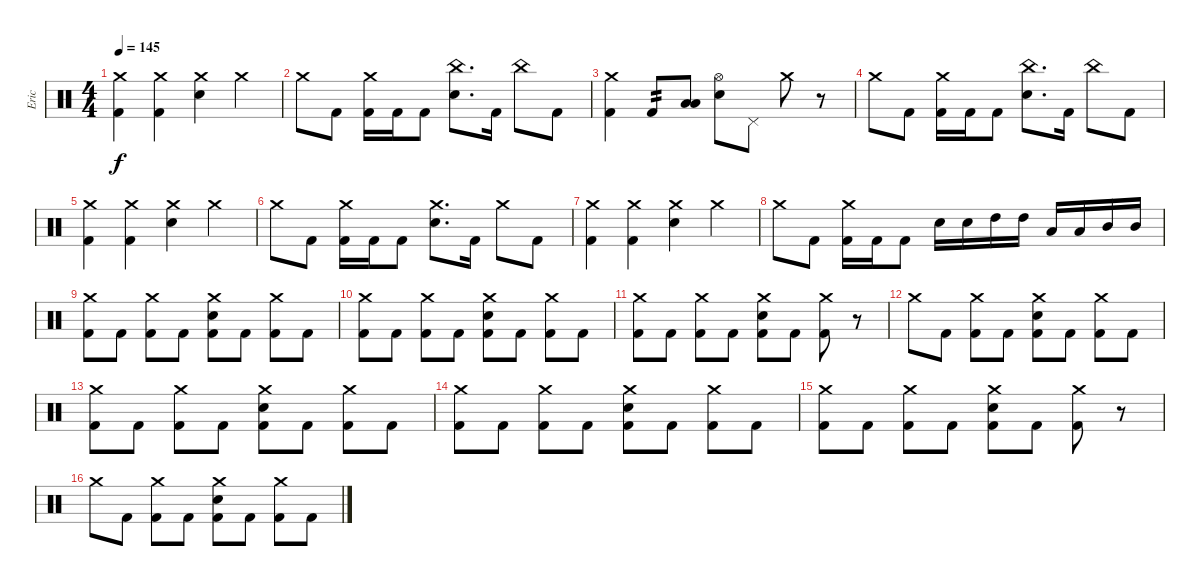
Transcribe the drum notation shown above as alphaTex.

\track ("Eric" "Eric") {instrument percussion}
\staff {score}
\articulation defaults
\ts (4 4)
\tempo 145
\clef neutral
\ks c
("Crash medium (hit)" "Kick (hit) 2").4{dy f} ("Crash medium (hit)" "Kick (hit) 2").4 ("Crash medium (hit)" "Electric Snare (hit)").4 "Crash medium (hit)".4 |
"Crash medium (hit)".8 "Kick (hit) 2".8 ("Crash medium (hit)" "Kick (hit) 2").16 "Kick (hit) 2".16 "Kick (hit) 2".8 ("China (hit)" "Electric Snare (hit)").8{d} "Kick (hit) 2".16 "China (hit)".8 "Kick (hit) 2".8 |
("Crash medium (hit)" "Kick (hit) 2").4 "Kick (hit) 2".8{tp 2} ("Low Floor Tom (hit)" "Low Tom (hit)").8 ("Hi-Hat (open)" "Electric Snare (hit)").8 "Pedal Hi-Hat (hit)".8 "Crash medium (hit)".8 r.8 |
"Crash medium (hit)".8 "Kick (hit) 2".8 ("Crash medium (hit)" "Kick (hit) 2").16 "Kick (hit) 2".16 "Kick (hit) 2".8 ("China (hit)" "Electric Snare (hit)").8{d} "Kick (hit) 2".16 "China (hit)".8 "Kick (hit) 2".8 |
("Crash medium (hit)" "Kick (hit) 2").4 ("Crash medium (hit)" "Kick (hit) 2").4 ("Crash medium (hit)" "Electric Snare (hit)").4 "Crash medium (hit)".4 |
"Crash medium (hit)".8 "Kick (hit) 2".8 ("Crash medium (hit)" "Kick (hit) 2").16 "Kick (hit) 2".16 "Kick (hit) 2".8 ("Crash medium (hit)" "Electric Snare (hit)").8{d} "Kick (hit) 2".16 "Crash medium (hit)".8 "Kick (hit) 2".8 |
("Crash medium (hit)" "Kick (hit) 2").4 ("Crash medium (hit)" "Kick (hit) 2").4 ("Crash medium (hit)" "Electric Snare (hit)").4 "Crash medium (hit)".4 |
"Crash medium (hit)".8 "Kick (hit) 2".8 ("Crash medium (hit)" "Kick (hit) 2").16 "Kick (hit) 2".16 "Kick (hit) 2".8 "Electric Snare (hit)".16 "Electric Snare (hit)".16 "High Tom (hit)".16 "High Tom (hit)".16 "Low Tom (hit)".16 "Low Tom (hit)".16 "Mid Tom (hit)".16 "Mid Tom (hit)".16 |
("Crash medium (hit)" "Kick (hit) 2").8 "Kick (hit) 2".8 ("Crash medium (hit)" "Kick (hit) 2").8 "Kick (hit) 2".8 ("Crash medium (hit)" "Electric Snare (hit)" "Kick (hit) 2").8 "Kick (hit) 2".8 ("Crash medium (hit)" "Kick (hit) 2").8 "Kick (hit) 2".8 |
("Crash medium (hit)" "Kick (hit) 2").8 "Kick (hit) 2".8 ("Crash medium (hit)" "Kick (hit) 2").8 "Kick (hit) 2".8 ("Crash medium (hit)" "Electric Snare (hit)" "Kick (hit) 2").8 "Kick (hit) 2".8 ("Crash medium (hit)" "Kick (hit) 2").8 "Kick (hit) 2".8 |
("Crash medium (hit)" "Kick (hit) 2").8 "Kick (hit) 2".8 ("Crash medium (hit)" "Kick (hit) 2").8 "Kick (hit) 2".8 ("Crash medium (hit)" "Electric Snare (hit)" "Kick (hit) 2").8 "Kick (hit) 2".8 ("Crash medium (hit)" "Kick (hit) 2").8 r.8 |
"Crash medium (hit)".8 "Kick (hit) 2".8 ("Crash medium (hit)" "Kick (hit) 2").8 "Kick (hit) 2".8 ("Crash medium (hit)" "Electric Snare (hit)" "Kick (hit) 2").8 "Kick (hit) 2".8 ("Crash medium (hit)" "Kick (hit) 2").8 "Kick (hit) 2".8 |
("Crash medium (hit)" "Kick (hit) 2").8 "Kick (hit) 2".8 ("Crash medium (hit)" "Kick (hit) 2").8 "Kick (hit) 2".8 ("Crash medium (hit)" "Electric Snare (hit)" "Kick (hit) 2").8 "Kick (hit) 2".8 ("Crash medium (hit)" "Kick (hit) 2").8 "Kick (hit) 2".8 |
("Crash medium (hit)" "Kick (hit) 2").8 "Kick (hit) 2".8 ("Crash medium (hit)" "Kick (hit) 2").8 "Kick (hit) 2".8 ("Crash medium (hit)" "Electric Snare (hit)" "Kick (hit) 2").8 "Kick (hit) 2".8 ("Crash medium (hit)" "Kick (hit) 2").8 "Kick (hit) 2".8 |
("Crash medium (hit)" "Kick (hit) 2").8 "Kick (hit) 2".8 ("Crash medium (hit)" "Kick (hit) 2").8 "Kick (hit) 2".8 ("Crash medium (hit)" "Electric Snare (hit)" "Kick (hit) 2").8 "Kick (hit) 2".8 ("Crash medium (hit)" "Kick (hit) 2").8 r.8 |
"Crash medium (hit)".8 "Kick (hit) 2".8 ("Crash medium (hit)" "Kick (hit) 2").8 "Kick (hit) 2".8 ("Crash medium (hit)" "Electric Snare (hit)" "Kick (hit) 2").8 "Kick (hit) 2".8 ("Crash medium (hit)" "Kick (hit) 2").8 "Kick (hit) 2".8
